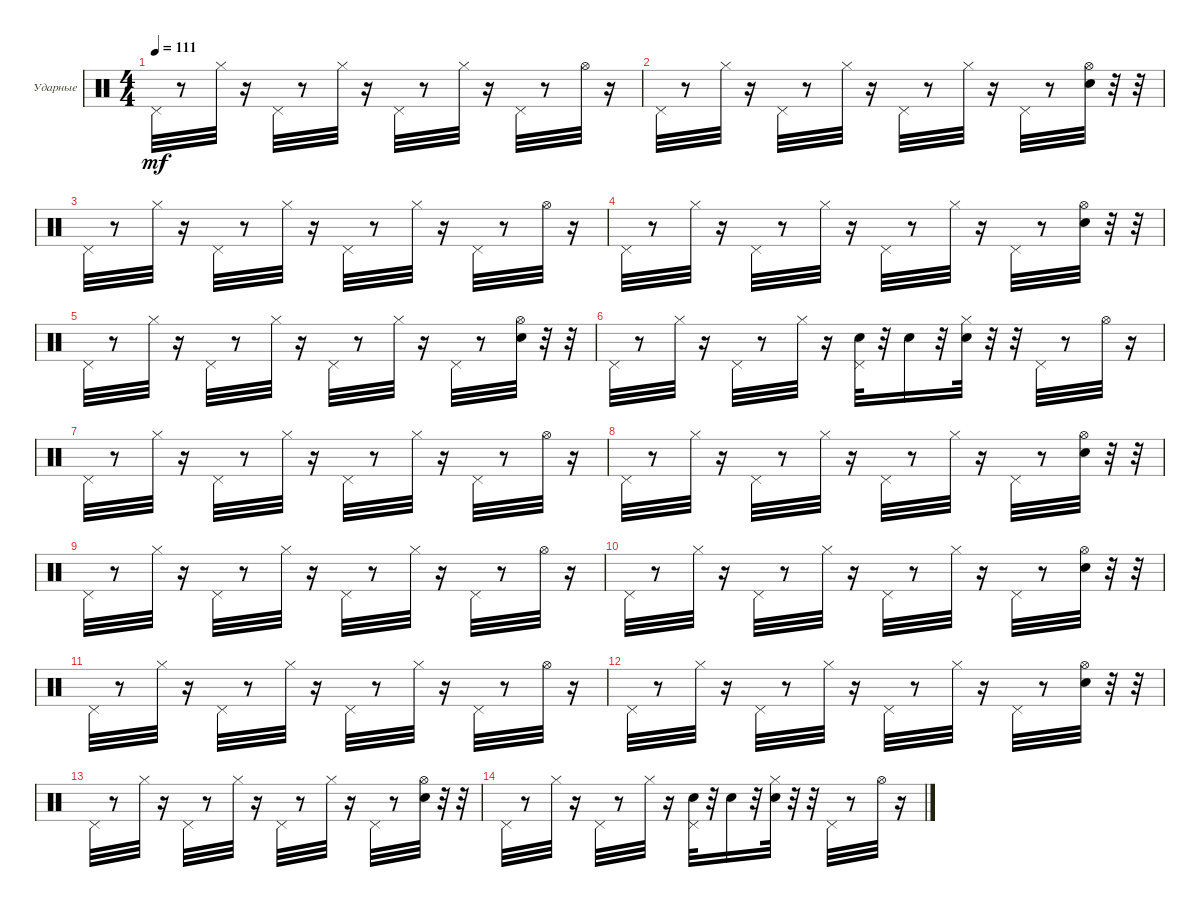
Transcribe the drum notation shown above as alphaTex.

\bracketExtendMode groupsimilarinstruments
\firstSystemTrackNameOrientation horizontal
\otherSystemsTrackNameOrientation horizontal
\track ("Ударные" "Ударные") {instrument percussion}
\staff {score}
\articulation defaults
\ts (4 4)
\tempo 111
\clef neutral
\ks c "Pedal Hi-Hat (hit)".32{dy mf}
r.8 "Hi-Hat (closed)".32 r.16 "Pedal Hi-Hat (hit)".32 r.8 "Hi-Hat (closed)".32 r.16 "Pedal Hi-Hat (hit)".32 r.8 "Hi-Hat (closed)".32 r.16 "Pedal Hi-Hat (hit)".32 r.8 "Hi-Hat (open)".32 r.16 |
"Pedal Hi-Hat (hit)".32 r.8 "Hi-Hat (closed)".32 r.16 "Pedal Hi-Hat (hit)".32 r.8 "Hi-Hat (closed)".32 r.16 "Pedal Hi-Hat (hit)".32 r.8 "Hi-Hat (closed)".32 r.16 "Pedal Hi-Hat (hit)".32 r.8 ("Hi-Hat (open)" "Snare (hit) 2").32 r.32 r.32 |
"Pedal Hi-Hat (hit)".32 r.8 "Hi-Hat (closed)".32 r.16 "Pedal Hi-Hat (hit)".32 r.8 "Hi-Hat (closed)".32 r.16 "Pedal Hi-Hat (hit)".32 r.8 "Hi-Hat (closed)".32 r.16 "Pedal Hi-Hat (hit)".32 r.8 "Hi-Hat (open)".32 r.16 |
"Pedal Hi-Hat (hit)".32 r.8 "Hi-Hat (closed)".32 r.16 "Pedal Hi-Hat (hit)".32 r.8 "Hi-Hat (closed)".32 r.16 "Pedal Hi-Hat (hit)".32 r.8 "Hi-Hat (closed)".32 r.16 "Pedal Hi-Hat (hit)".32 r.8 ("Snare (hit) 2" "Hi-Hat (open)").32 r.32 r.32 |
"Pedal Hi-Hat (hit)".32 r.8 "Hi-Hat (closed)".32 r.16 "Pedal Hi-Hat (hit)".32 r.8 "Hi-Hat (closed)".32 r.16 "Pedal Hi-Hat (hit)".32 r.8 "Hi-Hat (closed)".32 r.16 "Pedal Hi-Hat (hit)".32 r.8 ("Snare (hit) 2" "Hi-Hat (open)").32 r.32 r.32 |
"Pedal Hi-Hat (hit)".32 r.8 "Hi-Hat (closed)".32 r.16 "Pedal Hi-Hat (hit)".32 r.8 "Hi-Hat (closed)".32 r.16 ("Snare (hit) 2" "Pedal Hi-Hat (hit)").32 r.32 "Snare (hit) 2".16 r.32 ("Snare (hit) 2" "Hi-Hat (closed)").32 r.32 r.32 "Pedal Hi-Hat (hit)".32 r.8 "Hi-Hat (open)".32 r.16 |
"Pedal Hi-Hat (hit)".32 r.8 "Hi-Hat (closed)".32 r.16 "Pedal Hi-Hat (hit)".32 r.8 "Hi-Hat (closed)".32 r.16 "Pedal Hi-Hat (hit)".32 r.8 "Hi-Hat (closed)".32 r.16 "Pedal Hi-Hat (hit)".32 r.8 "Hi-Hat (open)".32 r.16 |
"Pedal Hi-Hat (hit)".32 r.8 "Hi-Hat (closed)".32 r.16 "Pedal Hi-Hat (hit)".32 r.8 "Hi-Hat (closed)".32 r.16 "Pedal Hi-Hat (hit)".32 r.8 "Hi-Hat (closed)".32 r.16 "Pedal Hi-Hat (hit)".32 r.8 ("Hi-Hat (open)" "Snare (hit) 2").32 r.32 r.32 |
"Pedal Hi-Hat (hit)".32 r.8 "Hi-Hat (closed)".32 r.16 "Pedal Hi-Hat (hit)".32 r.8 "Hi-Hat (closed)".32 r.16 "Pedal Hi-Hat (hit)".32 r.8 "Hi-Hat (closed)".32 r.16 "Pedal Hi-Hat (hit)".32 r.8 "Hi-Hat (open)".32 r.16 |
"Pedal Hi-Hat (hit)".32 r.8 "Hi-Hat (closed)".32 r.16 "Pedal Hi-Hat (hit)".32 r.8 "Hi-Hat (closed)".32 r.16 "Pedal Hi-Hat (hit)".32 r.8 "Hi-Hat (closed)".32 r.16 "Pedal Hi-Hat (hit)".32 r.8 ("Hi-Hat (open)" "Snare (hit) 2").32 r.32 r.32 |
"Pedal Hi-Hat (hit)".32 r.8 "Hi-Hat (closed)".32 r.16 "Pedal Hi-Hat (hit)".32 r.8 "Hi-Hat (closed)".32 r.16 "Pedal Hi-Hat (hit)".32 r.8 "Hi-Hat (closed)".32 r.16 "Pedal Hi-Hat (hit)".32 r.8 "Hi-Hat (open)".32 r.16 |
"Pedal Hi-Hat (hit)".32 r.8 "Hi-Hat (closed)".32 r.16 "Pedal Hi-Hat (hit)".32 r.8 "Hi-Hat (closed)".32 r.16 "Pedal Hi-Hat (hit)".32 r.8 "Hi-Hat (closed)".32 r.16 "Pedal Hi-Hat (hit)".32 r.8 ("Snare (hit) 2" "Hi-Hat (open)").32 r.32 r.32 |
"Pedal Hi-Hat (hit)".32 r.8 "Hi-Hat (closed)".32 r.16 "Pedal Hi-Hat (hit)".32 r.8 "Hi-Hat (closed)".32 r.16 "Pedal Hi-Hat (hit)".32 r.8 "Hi-Hat (closed)".32 r.16 "Pedal Hi-Hat (hit)".32 r.8 ("Snare (hit) 2" "Hi-Hat (open)").32 r.32 r.32 |
"Pedal Hi-Hat (hit)".32 r.8 "Hi-Hat (closed)".32 r.16 "Pedal Hi-Hat (hit)".32 r.8 "Hi-Hat (closed)".32 r.16 ("Snare (hit) 2" "Pedal Hi-Hat (hit)").32 r.32 "Snare (hit) 2".16 r.32 ("Snare (hit) 2" "Hi-Hat (closed)").32 r.32 r.32 "Pedal Hi-Hat (hit)".32 r.8 "Hi-Hat (open)".32 r.16
